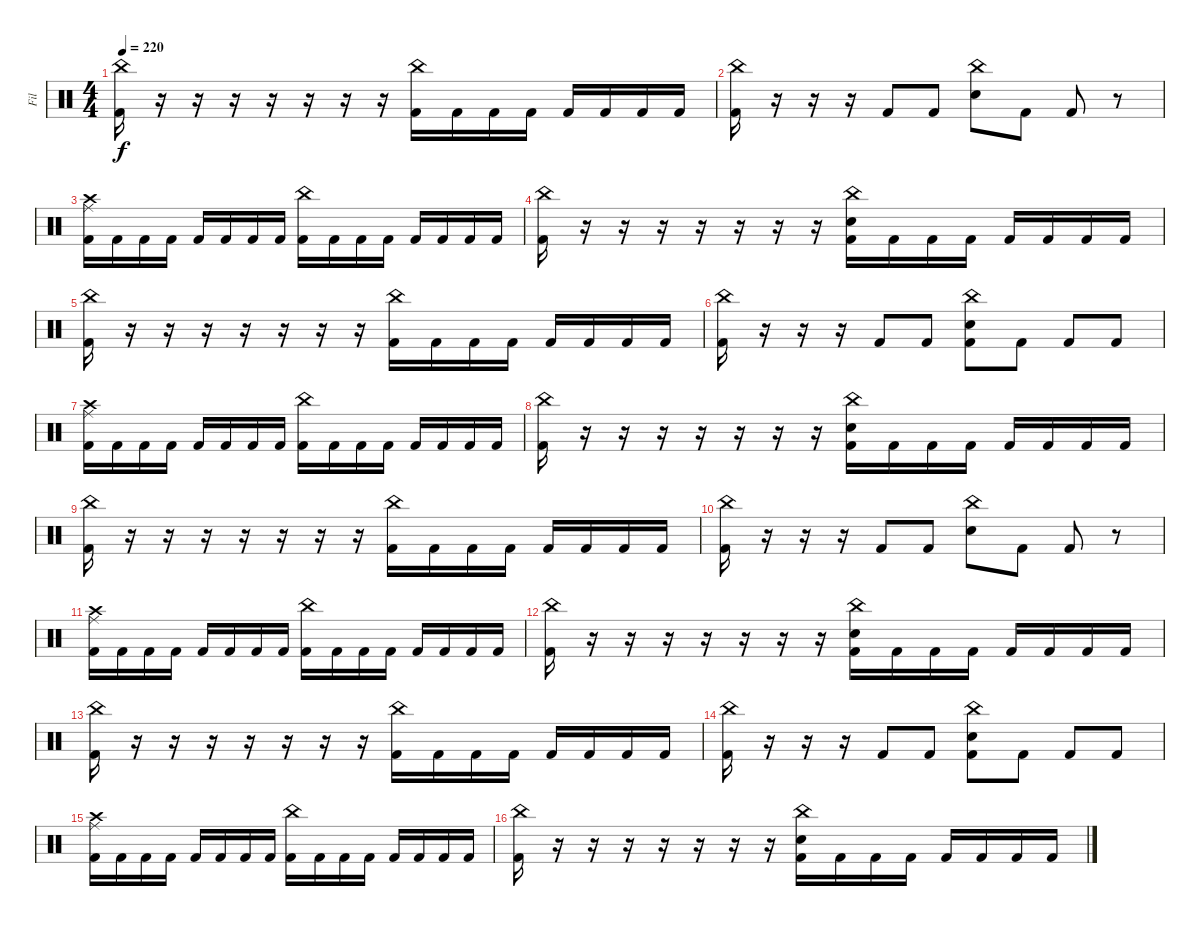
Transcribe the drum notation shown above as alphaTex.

\track ("Fil" "Fil") {instrument percussion}
\staff {score}
\articulation defaults
\ts (4 4)
\tempo 220
\clef neutral
\ks c
("China (hit)" "Kick (hit) 2").16{dy f} r.16 r.16 r.16 r.16 r.16 r.16 r.16 ("China (hit)" "Kick (hit) 2").16 "Kick (hit) 2".16 "Kick (hit) 2".16 "Kick (hit) 2".16 "Kick (hit) 2".16 "Kick (hit) 2".16 "Kick (hit) 2".16 "Kick (hit) 2".16 |
("China (hit)" "Kick (hit) 2").16 r.16 r.16 r.16 "Kick (hit) 2".8 "Kick (hit) 2".8 ("China (hit)" "Electric Snare (hit)").8 "Kick (hit) 2".8 "Kick (hit) 2".8 r.8 |
("Crash high (hit)" "Ride (middle)" "Kick (hit) 2").16 "Kick (hit) 2".16 "Kick (hit) 2".16 "Kick (hit) 2".16 "Kick (hit) 2".16 "Kick (hit) 2".16 "Kick (hit) 2".16 "Kick (hit) 2".16 ("China (hit)" "Kick (hit) 2").16 "Kick (hit) 2".16 "Kick (hit) 2".16 "Kick (hit) 2".16 "Kick (hit) 2".16 "Kick (hit) 2".16 "Kick (hit) 2".16 "Kick (hit) 2".16 |
("China (hit)" "Kick (hit) 2").16 r.16 r.16 r.16 r.16 r.16 r.16 r.16 ("China (hit)" "Electric Snare (hit)" "Kick (hit) 2").16 "Kick (hit) 2".16 "Kick (hit) 2".16 "Kick (hit) 2".16 "Kick (hit) 2".16 "Kick (hit) 2".16 "Kick (hit) 2".16 "Kick (hit) 2".16 |
("China (hit)" "Kick (hit) 2").16 r.16 r.16 r.16 r.16 r.16 r.16 r.16 ("China (hit)" "Kick (hit) 2").16 "Kick (hit) 2".16 "Kick (hit) 2".16 "Kick (hit) 2".16 "Kick (hit) 2".16 "Kick (hit) 2".16 "Kick (hit) 2".16 "Kick (hit) 2".16 |
("China (hit)" "Kick (hit) 2").16 r.16 r.16 r.16 "Kick (hit) 2".8 "Kick (hit) 2".8 ("China (hit)" "Electric Snare (hit)" "Kick (hit) 2").8 "Kick (hit) 2".8 "Kick (hit) 2".8 "Kick (hit) 2".8 |
("Crash high (hit)" "Ride (middle)" "Kick (hit) 2").16 "Kick (hit) 2".16 "Kick (hit) 2".16 "Kick (hit) 2".16 "Kick (hit) 2".16 "Kick (hit) 2".16 "Kick (hit) 2".16 "Kick (hit) 2".16 ("China (hit)" "Kick (hit) 2").16 "Kick (hit) 2".16 "Kick (hit) 2".16 "Kick (hit) 2".16 "Kick (hit) 2".16 "Kick (hit) 2".16 "Kick (hit) 2".16 "Kick (hit) 2".16 |
("China (hit)" "Kick (hit) 2").16 r.16 r.16 r.16 r.16 r.16 r.16 r.16 ("China (hit)" "Electric Snare (hit)" "Kick (hit) 2").16 "Kick (hit) 2".16 "Kick (hit) 2".16 "Kick (hit) 2".16 "Kick (hit) 2".16 "Kick (hit) 2".16 "Kick (hit) 2".16 "Kick (hit) 2".16 |
("China (hit)" "Kick (hit) 2").16 r.16 r.16 r.16 r.16 r.16 r.16 r.16 ("China (hit)" "Kick (hit) 2").16 "Kick (hit) 2".16 "Kick (hit) 2".16 "Kick (hit) 2".16 "Kick (hit) 2".16 "Kick (hit) 2".16 "Kick (hit) 2".16 "Kick (hit) 2".16 |
("China (hit)" "Kick (hit) 2").16 r.16 r.16 r.16 "Kick (hit) 2".8 "Kick (hit) 2".8 ("China (hit)" "Electric Snare (hit)").8 "Kick (hit) 2".8 "Kick (hit) 2".8 r.8 |
("Crash high (hit)" "Ride (middle)" "Kick (hit) 2").16 "Kick (hit) 2".16 "Kick (hit) 2".16 "Kick (hit) 2".16 "Kick (hit) 2".16 "Kick (hit) 2".16 "Kick (hit) 2".16 "Kick (hit) 2".16 ("China (hit)" "Kick (hit) 2").16 "Kick (hit) 2".16 "Kick (hit) 2".16 "Kick (hit) 2".16 "Kick (hit) 2".16 "Kick (hit) 2".16 "Kick (hit) 2".16 "Kick (hit) 2".16 |
("China (hit)" "Kick (hit) 2").16 r.16 r.16 r.16 r.16 r.16 r.16 r.16 ("China (hit)" "Electric Snare (hit)" "Kick (hit) 2").16 "Kick (hit) 2".16 "Kick (hit) 2".16 "Kick (hit) 2".16 "Kick (hit) 2".16 "Kick (hit) 2".16 "Kick (hit) 2".16 "Kick (hit) 2".16 |
("China (hit)" "Kick (hit) 2").16 r.16 r.16 r.16 r.16 r.16 r.16 r.16 ("China (hit)" "Kick (hit) 2").16 "Kick (hit) 2".16 "Kick (hit) 2".16 "Kick (hit) 2".16 "Kick (hit) 2".16 "Kick (hit) 2".16 "Kick (hit) 2".16 "Kick (hit) 2".16 |
("China (hit)" "Kick (hit) 2").16 r.16 r.16 r.16 "Kick (hit) 2".8 "Kick (hit) 2".8 ("China (hit)" "Electric Snare (hit)" "Kick (hit) 2").8 "Kick (hit) 2".8 "Kick (hit) 2".8 "Kick (hit) 2".8 |
("Crash high (hit)" "Ride (middle)" "Kick (hit) 2").16 "Kick (hit) 2".16 "Kick (hit) 2".16 "Kick (hit) 2".16 "Kick (hit) 2".16 "Kick (hit) 2".16 "Kick (hit) 2".16 "Kick (hit) 2".16 ("China (hit)" "Kick (hit) 2").16 "Kick (hit) 2".16 "Kick (hit) 2".16 "Kick (hit) 2".16 "Kick (hit) 2".16 "Kick (hit) 2".16 "Kick (hit) 2".16 "Kick (hit) 2".16 |
("China (hit)" "Kick (hit) 2").16 r.16 r.16 r.16 r.16 r.16 r.16 r.16 ("China (hit)" "Electric Snare (hit)" "Kick (hit) 2").16 "Kick (hit) 2".16 "Kick (hit) 2".16 "Kick (hit) 2".16 "Kick (hit) 2".16 "Kick (hit) 2".16 "Kick (hit) 2".16 "Kick (hit) 2".16
